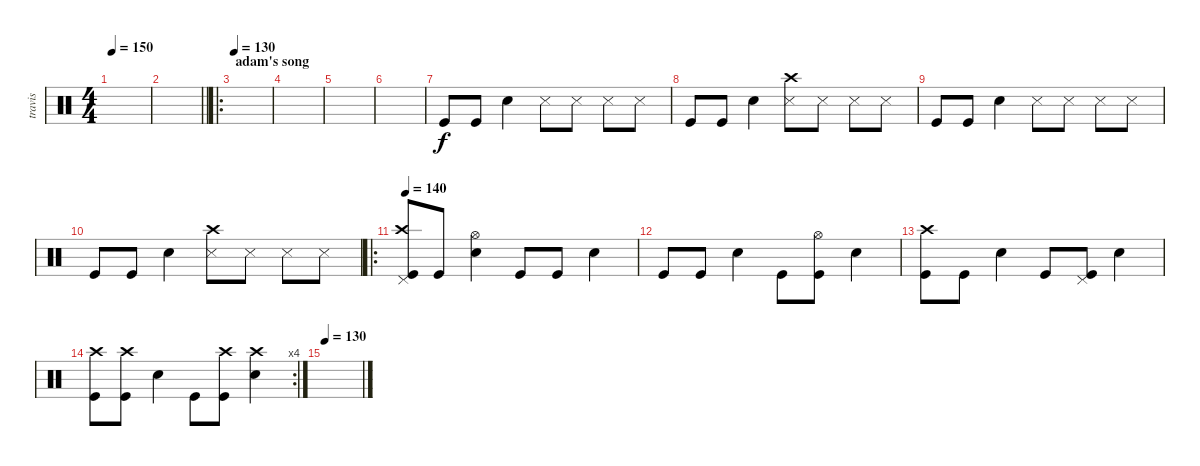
\track ("travis" "travis") {instrument percussion}
\staff {score}
\articulation defaults
\ts (4 4)
\tempo 150
\clef neutral
\ks c
|
\barLineRight lightlight
|
\ro
\section ("" "adam's song")
\tempo 130
|
|
|
|
"Kick (hit)".8 "Kick (hit)".8 "Electric Snare (hit)".4 "Snare (side stick) 3".8 "Snare (side stick) 3".8 "Snare (side stick) 3".8 "Snare (side stick) 3".8 |
"Kick (hit)".8 "Kick (hit)".8 "Electric Snare (hit)".4 ("Crash high (hit)" "Snare (side stick) 3").8 "Snare (side stick) 3".8 "Snare (side stick) 3".8 "Snare (side stick) 3".8 |
"Kick (hit)".8 "Kick (hit)".8 "Electric Snare (hit)".4 "Snare (side stick) 3".8 "Snare (side stick) 3".8 "Snare (side stick) 3".8 "Snare (side stick) 3".8 |
"Kick (hit)".8 "Kick (hit)".8 "Electric Snare (hit)".4 ("Crash high (hit)" "Snare (side stick) 3").8 "Snare (side stick) 3".8 "Snare (side stick) 3".8 "Snare (side stick) 3".8 |
\ro
\tempo 140
("Pedal Hi-Hat (hit)" "Crash high (hit)" "Kick (hit)").8 "Kick (hit)".8 ("Hi-Hat (open)" "Electric Snare (hit)").4 "Kick (hit)".8 "Kick (hit)".8 "Electric Snare (hit)".4 |
"Kick (hit)".8 "Kick (hit)".8 "Electric Snare (hit)".4 "Kick (hit)".8 ("Hi-Hat (open)" "Kick (hit)").8 "Electric Snare (hit)".4 |
("Crash high (hit)" "Kick (hit)").8 "Kick (hit)".8 "Electric Snare (hit)".4 "Kick (hit)".8 ("Pedal Hi-Hat (hit)" "Kick (hit)").8 "Electric Snare (hit)".4 |
\rc 4
("Crash high (hit)" "Kick (hit)").8 ("Crash high (hit)" "Kick (hit)").8 "Electric Snare (hit)".4 "Kick (hit)".8 ("Crash high (hit)" "Kick (hit)").8 ("Crash high (hit)" "Electric Snare (hit)").4 |
\tempo 130
